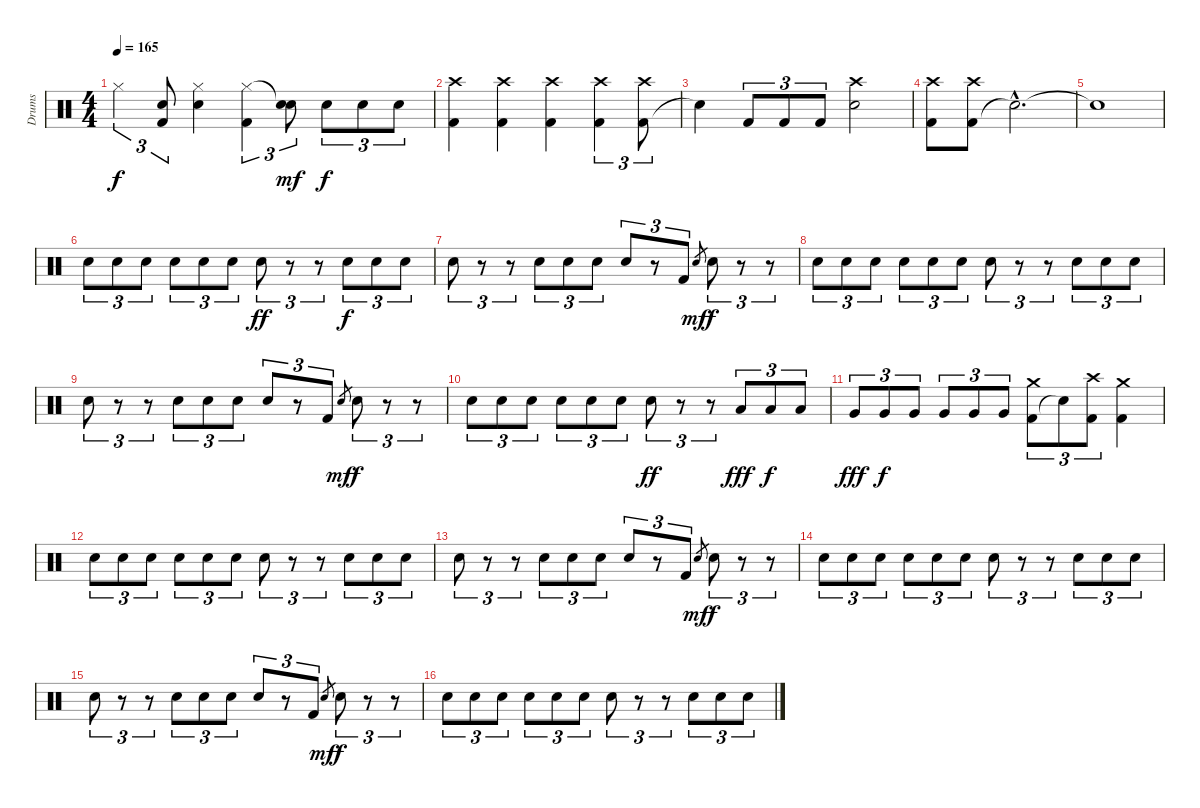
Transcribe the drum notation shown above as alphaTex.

\track ("Drums" "Drums") {instrument percussion}
\staff {score}
\articulation defaults
\ts (4 4)
\tempo 165
\clef neutral
\ks c "Hi-Hat (closed)".4{tu (3 2) dy f}
("Kick (hit) 2" "Snare (hit)"{t}).8{tu (3 2)} ("Snare (hit) 2" "Hi-Hat (closed)").4 ("Kick (hit) 2" "Hi-Hat (closed)").4{tu (3 2)} ("Snare (hit) 2" "Snare (hit)"{t}).8{tu (3 2) dy mf} "Snare (hit) 2".8{tu (3 2) dy f} "Snare (hit) 2".8{tu (3 2)} "Snare (hit) 2".8{tu (3 2)} |
("Kick (hit) 2" "Crash high (hit)").4 ("Kick (hit) 2" "Crash high (hit)").4 ("Kick (hit) 2" "Crash high (hit)").4 ("Kick (hit) 2" "Crash high (hit)").4{tu (3 2)} ("Kick (hit) 2" "Crash high (hit)").8{tu (3 2)} |
"Snare (hit)"{t}.4 "Kick (hit) 2".8{tu (3 2)} "Kick (hit) 2".8{tu (3 2)} "Kick (hit) 2".8{tu (3 2)} ("Snare (hit) 2" "Crash high (hit)").2 |
("Kick (hit) 2" "Crash high (hit)").8 ("Kick (hit) 2" "Crash high (hit)").8 "Snare (hit)"{hac t}.2{d} |
"Snare (hit)"{t}.1 |
"Snare (hit) 2".8{tu (3 2)} "Snare (hit) 2".8{tu (3 2)} "Snare (hit) 2".8{tu (3 2)} "Snare (hit) 2".8{tu (3 2)} "Snare (hit) 2".8{tu (3 2)} "Snare (hit) 2".8{tu (3 2)} "Snare (hit) 2".8{tu (3 2) dy ff} r.8{tu (3 2)} r.8{tu (3 2)} "Snare (hit) 2".8{tu (3 2) dy f} "Snare (hit) 2".8{tu (3 2)} "Snare (hit) 2".8{tu (3 2)} |
"Snare (hit) 2".8{tu (3 2)} r.8{tu (3 2)} r.8{tu (3 2)} "Snare (hit) 2".8{tu (3 2)} "Snare (hit) 2".8{tu (3 2)} "Snare (hit) 2".8{tu (3 2)} "Snare (hit) 2".8{tu (3 2)} r.8{tu (3 2)} "Kick (hit) 2".8{tu (3 2)} "Snare (hit) 2".8{gr dy mf} "Snare (hit) 2".8{tu (3 2) dy f} r.8{tu (3 2)} r.8{tu (3 2)} |
"Snare (hit) 2".8{tu (3 2)} "Snare (hit) 2".8{tu (3 2)} "Snare (hit) 2".8{tu (3 2)} "Snare (hit) 2".8{tu (3 2)} "Snare (hit) 2".8{tu (3 2)} "Snare (hit) 2".8{tu (3 2)} "Snare (hit) 2".8{tu (3 2)} r.8{tu (3 2)} r.8{tu (3 2)} "Snare (hit) 2".8{tu (3 2)} "Snare (hit) 2".8{tu (3 2)} "Snare (hit) 2".8{tu (3 2)} |
"Snare (hit) 2".8{tu (3 2)} r.8{tu (3 2)} r.8{tu (3 2)} "Snare (hit) 2".8{tu (3 2)} "Snare (hit) 2".8{tu (3 2)} "Snare (hit) 2".8{tu (3 2)} "Snare (hit) 2".8{tu (3 2)} r.8{tu (3 2)} "Kick (hit) 2".8{tu (3 2)} "Snare (hit) 2".8{gr dy mf} "Snare (hit) 2".8{tu (3 2) dy f} r.8{tu (3 2)} r.8{tu (3 2)} |
"Snare (hit) 2".8{tu (3 2)} "Snare (hit) 2".8{tu (3 2)} "Snare (hit) 2".8{tu (3 2)} "Snare (hit) 2".8{tu (3 2)} "Snare (hit) 2".8{tu (3 2)} "Snare (hit) 2".8{tu (3 2)} "Snare (hit) 2".8{tu (3 2) dy ff} r.8{tu (3 2)} r.8{tu (3 2)} "Low Tom (hit)".8{tu (3 2) dy fff} "Low Tom (hit)".8{tu (3 2) dy f} "Low Tom (hit)".8{tu (3 2)} |
"Very Low Tom (hit)".8{tu (3 2) dy fff} "Very Low Tom (hit)".8{tu (3 2) dy f} "Very Low Tom (hit)".8{tu (3 2)} "Very Low Tom (hit)".8{tu (3 2)} "Very Low Tom (hit)".8{tu (3 2)} "Very Low Tom (hit)".8{tu (3 2)} ("Kick (hit) 2" "Crash medium (hit)").8{tu (3 2)} "Snare (hit)"{t}.8{tu (3 2)} ("Kick (hit) 2" "Crash high (hit)").8{tu (3 2)} ("Kick (hit) 2" "Crash medium (hit)").4 |
"Snare (hit) 2".8{tu (3 2)} "Snare (hit) 2".8{tu (3 2)} "Snare (hit) 2".8{tu (3 2)} "Snare (hit) 2".8{tu (3 2)} "Snare (hit) 2".8{tu (3 2)} "Snare (hit) 2".8{tu (3 2)} "Snare (hit) 2".8{tu (3 2)} r.8{tu (3 2)} r.8{tu (3 2)} "Snare (hit) 2".8{tu (3 2)} "Snare (hit) 2".8{tu (3 2)} "Snare (hit) 2".8{tu (3 2)} |
"Snare (hit) 2".8{tu (3 2)} r.8{tu (3 2)} r.8{tu (3 2)} "Snare (hit) 2".8{tu (3 2)} "Snare (hit) 2".8{tu (3 2)} "Snare (hit) 2".8{tu (3 2)} "Snare (hit) 2".8{tu (3 2)} r.8{tu (3 2)} "Kick (hit) 2".8{tu (3 2)} "Snare (hit) 2".8{gr dy mf} "Snare (hit) 2".8{tu (3 2) dy f} r.8{tu (3 2)} r.8{tu (3 2)} |
"Snare (hit) 2".8{tu (3 2)} "Snare (hit) 2".8{tu (3 2)} "Snare (hit) 2".8{tu (3 2)} "Snare (hit) 2".8{tu (3 2)} "Snare (hit) 2".8{tu (3 2)} "Snare (hit) 2".8{tu (3 2)} "Snare (hit) 2".8{tu (3 2)} r.8{tu (3 2)} r.8{tu (3 2)} "Snare (hit) 2".8{tu (3 2)} "Snare (hit) 2".8{tu (3 2)} "Snare (hit) 2".8{tu (3 2)} |
"Snare (hit) 2".8{tu (3 2)} r.8{tu (3 2)} r.8{tu (3 2)} "Snare (hit) 2".8{tu (3 2)} "Snare (hit) 2".8{tu (3 2)} "Snare (hit) 2".8{tu (3 2)} "Snare (hit) 2".8{tu (3 2)} r.8{tu (3 2)} "Kick (hit) 2".8{tu (3 2)} "Snare (hit) 2".8{gr dy mf} "Snare (hit) 2".8{tu (3 2) dy f} r.8{tu (3 2)} r.8{tu (3 2)} |
"Snare (hit) 2".8{tu (3 2)} "Snare (hit) 2".8{tu (3 2)} "Snare (hit) 2".8{tu (3 2)} "Snare (hit) 2".8{tu (3 2)} "Snare (hit) 2".8{tu (3 2)} "Snare (hit) 2".8{tu (3 2)} "Snare (hit) 2".8{tu (3 2)} r.8{tu (3 2)} r.8{tu (3 2)} "Snare (hit) 2".8{tu (3 2)} "Snare (hit) 2".8{tu (3 2)} "Snare (hit) 2".8{tu (3 2)}
